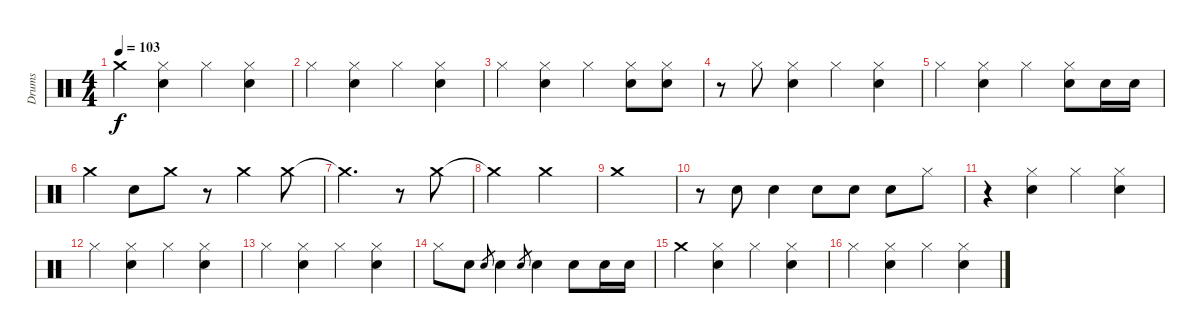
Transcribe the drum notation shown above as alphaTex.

\track ("Drums" "Drums") {instrument percussion}
\staff {score}
\articulation defaults
\ts (4 4)
\tempo 103
\clef neutral
\ks c "Crash medium (hit)".4{dy f}
("Hi-Hat (closed)" "Electric Snare (hit)").4 "Hi-Hat (closed)".4 ("Hi-Hat (closed)" "Electric Snare (hit)").4 |
"Hi-Hat (closed)".4 ("Hi-Hat (closed)" "Electric Snare (hit)").4 "Hi-Hat (closed)".4 ("Hi-Hat (closed)" "Electric Snare (hit)").4 |
"Hi-Hat (closed)".4 ("Hi-Hat (closed)" "Electric Snare (hit)").4 "Hi-Hat (closed)".4 ("Hi-Hat (closed)" "Electric Snare (hit)").8 ("Hi-Hat (closed)" "Electric Snare (hit)").8 |
r.8 "Hi-Hat (closed)".8 ("Hi-Hat (closed)" "Electric Snare (hit)").4 "Hi-Hat (closed)".4 ("Hi-Hat (closed)" "Electric Snare (hit)").4 |
"Hi-Hat (closed)".4 ("Hi-Hat (closed)" "Electric Snare (hit)").4 "Hi-Hat (closed)".4 ("Hi-Hat (closed)" "Electric Snare (hit)").8 "Electric Snare (hit)".16 "Electric Snare (hit)".16 |
"Crash medium (hit)".4 "Electric Snare (hit)".8 "Crash medium (hit)".8 r.8 "Crash medium (hit)".4 "Crash medium (hit)".8 |
"Crash medium (hit)"{t}.2{d} r.8 "Crash medium (hit)".8 |
"Crash medium (hit)"{t}.2 "Crash medium (hit)".2 |
"Crash medium (hit)".1 |
r.8 "Electric Snare (hit)".8 "Electric Snare (hit)".4 "Electric Snare (hit)".8 "Electric Snare (hit)".8 "Electric Snare (hit)".8 "Hi-Hat (closed)".8 |
r.4 ("Hi-Hat (closed)" "Electric Snare (hit)").4 "Hi-Hat (closed)".4 ("Hi-Hat (closed)" "Electric Snare (hit)").4 |
"Hi-Hat (closed)".4 ("Hi-Hat (closed)" "Electric Snare (hit)").4 "Hi-Hat (closed)".4 ("Hi-Hat (closed)" "Electric Snare (hit)").4 |
"Hi-Hat (closed)".4 ("Hi-Hat (closed)" "Electric Snare (hit)").4 "Hi-Hat (closed)".4 ("Hi-Hat (closed)" "Electric Snare (hit)").4 |
"Hi-Hat (closed)".8 "Electric Snare (hit)".8 "Electric Snare (hit)".8{gr} "Electric Snare (hit)".4 "Electric Snare (hit)".8{gr} "Electric Snare (hit)".4 "Electric Snare (hit)".8 "Electric Snare (hit)".16 "Electric Snare (hit)".16 |
"Crash medium (hit)".4 ("Hi-Hat (closed)" "Electric Snare (hit)").4 "Hi-Hat (closed)".4 ("Hi-Hat (closed)" "Electric Snare (hit)").4 |
"Hi-Hat (closed)".4 ("Hi-Hat (closed)" "Electric Snare (hit)").4 "Hi-Hat (closed)".4 ("Hi-Hat (closed)" "Electric Snare (hit)").4
